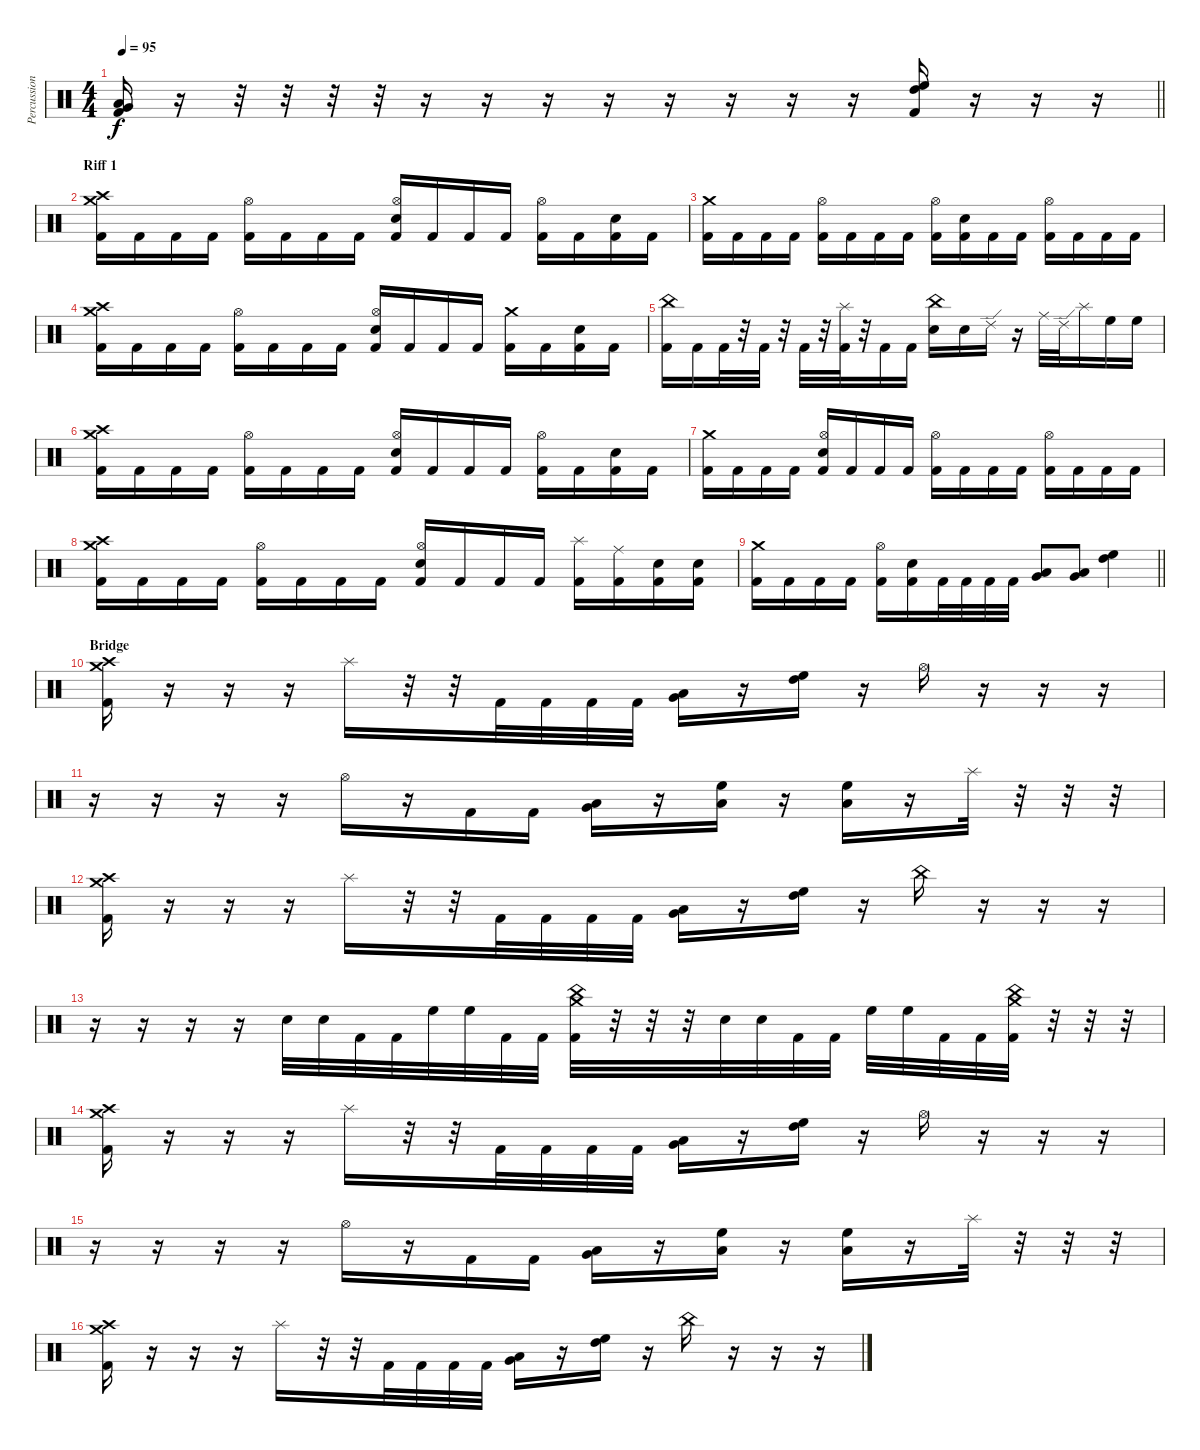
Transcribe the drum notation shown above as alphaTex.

\track ("Percussion" "Percussion") {instrument percussion}
\staff {score}
\articulation defaults
\ts (4 4)
\tempo 95
\clef neutral
\barLineRight lightlight
\ks c
("Low Tom (hit)" "Very Low Tom (hit)" "Kick (hit) 2").16{dy f} r.16 r.32 r.32 r.32 r.32 r.16 r.16 r.16 r.16 r.16 r.16 r.16 r.16 ("High Floor Tom (hit)" "High Tom (hit)" "Kick (hit) 2").16 r.16 r.16 r.16 |
\section ("" "Riff 1")
("Crash high (hit)" "Crash medium (hit)" "Kick (hit) 2").16 "Kick (hit) 2".16 "Kick (hit) 2".16 "Kick (hit) 2".16 ("Hi-Hat (open)" "Kick (hit) 2").16 "Kick (hit) 2".16 "Kick (hit) 2".16 "Kick (hit) 2".16 ("Hi-Hat (open)" "Electric Snare (hit)" "Kick (hit) 2").16 "Kick (hit) 2".16 "Kick (hit) 2".16 "Kick (hit) 2".16 ("Hi-Hat (open)" "Kick (hit) 2").16 "Kick (hit) 2".16 ("Electric Snare (hit)" "Kick (hit) 2").16 "Kick (hit) 2".16 |
("Crash medium (hit)" "Kick (hit) 2").16 "Kick (hit) 2".16 "Kick (hit) 2".16 "Kick (hit) 2".16 ("Hi-Hat (open)" "Kick (hit) 2").16 "Kick (hit) 2".16 "Kick (hit) 2".16 "Kick (hit) 2".16 ("Hi-Hat (open)" "Kick (hit) 2").16 ("Electric Snare (hit)" "Kick (hit) 2").16 "Kick (hit) 2".16 "Kick (hit) 2".16 ("Hi-Hat (open)" "Kick (hit) 2").16 "Kick (hit) 2".16 "Kick (hit) 2".16 "Kick (hit) 2".16 |
("Crash high (hit)" "Crash medium (hit)" "Kick (hit) 2").16 "Kick (hit) 2".16 "Kick (hit) 2".16 "Kick (hit) 2".16 ("Hi-Hat (open)" "Kick (hit) 2").16 "Kick (hit) 2".16 "Kick (hit) 2".16 "Kick (hit) 2".16 ("Hi-Hat (open)" "Electric Snare (hit)" "Kick (hit) 2").16 "Kick (hit) 2".16 "Kick (hit) 2".16 "Kick (hit) 2".16 ("Crash medium (hit)" "Kick (hit) 2").16 "Kick (hit) 2".16 ("Electric Snare (hit)" "Kick (hit) 2").16 "Kick (hit) 2".16 |
("China (hit)" "Kick (hit) 2").16 "Kick (hit) 2".16 "Kick (hit) 2".32 r.32 "Kick (hit) 2".32 r.32 "Kick (hit) 2".32 r.32 ("Splash (hit)" "Kick (hit) 2").32 r.32 "Kick (hit) 2".16 "Kick (hit) 2".16 ("China (hit)" "Electric Snare (hit)").16 "Electric Snare (hit)".16 "Ride (edge) 2".16 r.16 "Ride (middle)".32 "Ride (edge) 2".32 "Splash (hit)".16 "High Floor Tom (hit)".16 "High Floor Tom (hit)".16 |
("Crash high (hit)" "Crash medium (hit)" "Kick (hit) 2").16 "Kick (hit) 2".16 "Kick (hit) 2".16 "Kick (hit) 2".16 ("Hi-Hat (open)" "Kick (hit) 2").16 "Kick (hit) 2".16 "Kick (hit) 2".16 "Kick (hit) 2".16 ("Hi-Hat (open)" "Electric Snare (hit)" "Kick (hit) 2").16 "Kick (hit) 2".16 "Kick (hit) 2".16 "Kick (hit) 2".16 ("Hi-Hat (open)" "Kick (hit) 2").16 "Kick (hit) 2".16 ("Electric Snare (hit)" "Kick (hit) 2").16 "Kick (hit) 2".16 |
("Crash medium (hit)" "Kick (hit) 2").16 "Kick (hit) 2".16 "Kick (hit) 2".16 "Kick (hit) 2".16 ("Hi-Hat (open)" "Electric Snare (hit)" "Kick (hit) 2").16 "Kick (hit) 2".16 "Kick (hit) 2".16 "Kick (hit) 2".16 ("Hi-Hat (open)" "Kick (hit) 2").16 "Kick (hit) 2".16 "Kick (hit) 2".16 "Kick (hit) 2".16 ("Hi-Hat (open)" "Kick (hit) 2").16 "Kick (hit) 2".16 "Kick (hit) 2".16 "Kick (hit) 2".16 |
("Crash high (hit)" "Crash medium (hit)" "Kick (hit) 2").16 "Kick (hit) 2".16 "Kick (hit) 2".16 "Kick (hit) 2".16 ("Hi-Hat (open)" "Kick (hit) 2").16 "Kick (hit) 2".16 "Kick (hit) 2".16 "Kick (hit) 2".16 ("Hi-Hat (open)" "Electric Snare (hit)" "Kick (hit) 2").16 "Kick (hit) 2".16 "Kick (hit) 2".16 "Kick (hit) 2".16 ("Splash (hit)" "Kick (hit) 2").16 ("Ride (middle)" "Kick (hit) 2").16 ("Electric Snare (hit)" "Kick (hit) 2").16 ("Electric Snare (hit)" "Kick (hit) 2").16 |
\barLineRight lightlight
("Crash medium (hit)" "Kick (hit) 2").16 "Kick (hit) 2".16 "Kick (hit) 2".16 "Kick (hit) 2".16 ("Hi-Hat (open)" "Kick (hit) 2").16 ("Electric Snare (hit)" "Kick (hit) 2").16 "Kick (hit) 2".32 "Kick (hit) 2".32 "Kick (hit) 2".32 "Kick (hit) 2".32 ("Very Low Tom (hit)" "Low Tom (hit)").8 ("Low Tom (hit)" "Very Low Tom (hit)").8 ("High Tom (hit)" "High Floor Tom (hit)").4 |
\section ("" "Bridge")
("Crash medium (hit)" "Crash high (hit)" "Kick (hit) 2").16 r.16 r.16 r.16 "Splash (hit)".16 r.32 r.32 "Kick (hit) 2".32 "Kick (hit) 2".32 "Kick (hit) 2".32 "Kick (hit) 2".32 ("Very Low Tom (hit)" "Low Tom (hit)").16 r.16 ("High Tom (hit)" "High Floor Tom (hit)").16 r.16 "Hi-Hat (open)".16 r.16 r.16 r.16 |
r.16 r.16 r.16 r.16 "Hi-Hat (open)".16 r.16 "Kick (hit) 2".16 "Kick (hit) 2".16 ("Very Low Tom (hit)" "Low Tom (hit)").16 r.16 ("High Floor Tom (hit)" "Low Tom (hit)").16 r.16 ("High Floor Tom (hit)" "Low Tom (hit)").16 r.16 "Splash (hit)".32 r.32 r.32 r.32 |
("Crash medium (hit)" "Crash high (hit)" "Kick (hit) 2").16 r.16 r.16 r.16 "Splash (hit)".16 r.32 r.32 "Kick (hit) 2".32 "Kick (hit) 2".32 "Kick (hit) 2".32 "Kick (hit) 2".32 ("Very Low Tom (hit)" "Low Tom (hit)").16 r.16 ("High Tom (hit)" "High Floor Tom (hit)").16 r.16 "China (hit)".16 r.16 r.16 r.16 |
r.16 r.16 r.16 r.16 "Electric Snare (hit)".32 "Electric Snare (hit)".32 "Kick (hit) 2".32 "Kick (hit) 2".32 "High Floor Tom (hit)".32 "High Floor Tom (hit)".32 "Kick (hit) 2".32 "Kick (hit) 2".32 ("China (hit)" "Crash medium (hit)" "Kick (hit) 2").32 r.32 r.32 r.32 "Electric Snare (hit)".32 "Electric Snare (hit)".32 "Kick (hit) 2".32 "Kick (hit) 2".32 "High Floor Tom (hit)".32 "High Floor Tom (hit)".32 "Kick (hit) 2".32 "Kick (hit) 2".32 ("China (hit)" "Crash medium (hit)" "Kick (hit) 2").32 r.32 r.32 r.32 |
("Crash medium (hit)" "Crash high (hit)" "Kick (hit) 2").16 r.16 r.16 r.16 "Splash (hit)".16 r.32 r.32 "Kick (hit) 2".32 "Kick (hit) 2".32 "Kick (hit) 2".32 "Kick (hit) 2".32 ("Very Low Tom (hit)" "Low Tom (hit)").16 r.16 ("High Tom (hit)" "High Floor Tom (hit)").16 r.16 "Hi-Hat (open)".16 r.16 r.16 r.16 |
r.16 r.16 r.16 r.16 "Hi-Hat (open)".16 r.16 "Kick (hit) 2".16 "Kick (hit) 2".16 ("Very Low Tom (hit)" "Low Tom (hit)").16 r.16 ("High Floor Tom (hit)" "Low Tom (hit)").16 r.16 ("High Floor Tom (hit)" "Low Tom (hit)").16 r.16 "Splash (hit)".32 r.32 r.32 r.32 |
("Crash medium (hit)" "Crash high (hit)" "Kick (hit) 2").16 r.16 r.16 r.16 "Splash (hit)".16 r.32 r.32 "Kick (hit) 2".32 "Kick (hit) 2".32 "Kick (hit) 2".32 "Kick (hit) 2".32 ("Very Low Tom (hit)" "Low Tom (hit)").16 r.16 ("High Tom (hit)" "High Floor Tom (hit)").16 r.16 "China (hit)".16 r.16 r.16 r.16
